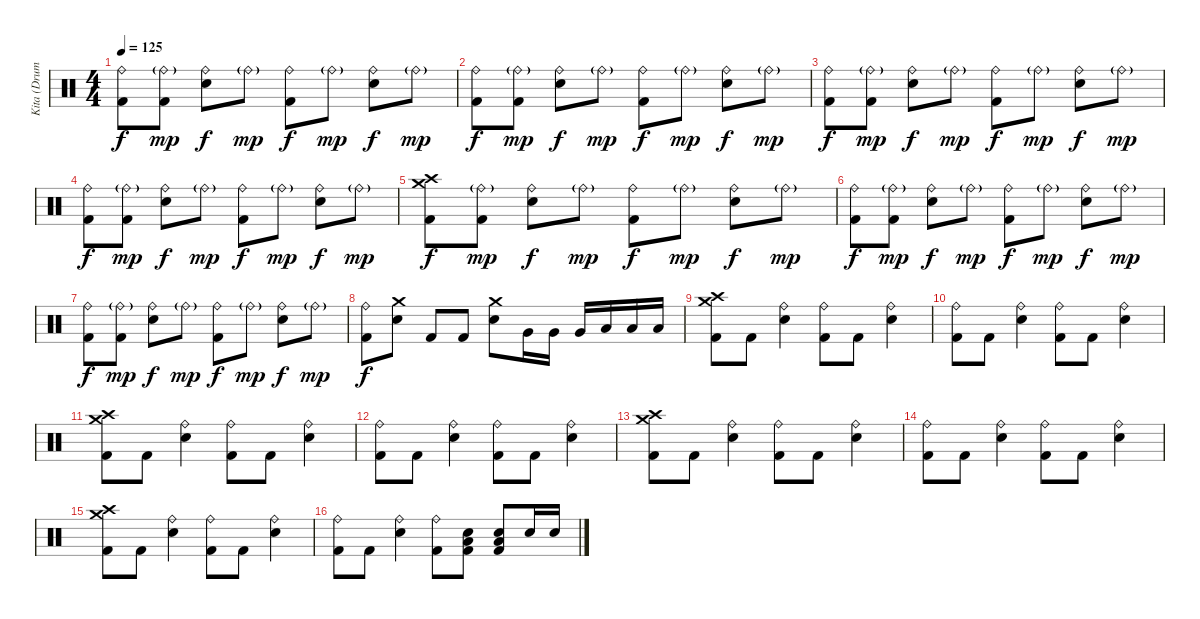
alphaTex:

\track ("Kita (Drums)" "Kita (Drum") {instrument percussion}
\staff {score}
\articulation defaults
\ts (4 4)
\tempo 125
\clef neutral
\ks c
("Ride (bell)" "Kick (hit) 2").8{dy f} ("Ride (bell)"{g} "Kick (hit) 2").8{dy mp} ("Ride (bell)" "Electric Snare (hit)").8{dy f} "Ride (bell)"{g}.8{dy mp} ("Ride (bell)" "Kick (hit) 2").8{dy f} "Ride (bell)"{g}.8{dy mp} ("Ride (bell)" "Electric Snare (hit)").8{dy f} "Ride (bell)"{g}.8{dy mp} |
("Ride (bell)" "Kick (hit) 2").8{dy f} ("Ride (bell)"{g} "Kick (hit) 2").8{dy mp} ("Ride (bell)" "Electric Snare (hit)").8{dy f} "Ride (bell)"{g}.8{dy mp} ("Ride (bell)" "Kick (hit) 2").8{dy f} "Ride (bell)"{g}.8{dy mp} ("Ride (bell)" "Electric Snare (hit)").8{dy f} "Ride (bell)"{g}.8{dy mp} |
("Ride (bell)" "Kick (hit) 2").8{dy f} ("Ride (bell)"{g} "Kick (hit) 2").8{dy mp} ("Ride (bell)" "Electric Snare (hit)").8{dy f} "Ride (bell)"{g}.8{dy mp} ("Ride (bell)" "Kick (hit) 2").8{dy f} "Ride (bell)"{g}.8{dy mp} ("Ride (bell)" "Electric Snare (hit)").8{dy f} "Ride (bell)"{g}.8{dy mp} |
("Ride (bell)" "Kick (hit) 2").8{dy f} ("Ride (bell)"{g} "Kick (hit) 2").8{dy mp} ("Ride (bell)" "Electric Snare (hit)").8{dy f} "Ride (bell)"{g}.8{dy mp} ("Ride (bell)" "Kick (hit) 2").8{dy f} "Ride (bell)"{g}.8{dy mp} ("Ride (bell)" "Electric Snare (hit)").8{dy f} "Ride (bell)"{g}.8{dy mp} |
("Crash medium (hit)" "Crash high (hit)" "Kick (hit) 2").8{dy f} ("Ride (bell)"{g} "Kick (hit) 2").8{dy mp} ("Ride (bell)" "Electric Snare (hit)").8{dy f} "Ride (bell)"{g}.8{dy mp} ("Ride (bell)" "Kick (hit) 2").8{dy f} "Ride (bell)"{g}.8{dy mp} ("Ride (bell)" "Electric Snare (hit)").8{dy f} "Ride (bell)"{g}.8{dy mp} |
("Ride (bell)" "Kick (hit) 2").8{dy f} ("Ride (bell)"{g} "Kick (hit) 2").8{dy mp} ("Ride (bell)" "Electric Snare (hit)").8{dy f} "Ride (bell)"{g}.8{dy mp} ("Ride (bell)" "Kick (hit) 2").8{dy f} "Ride (bell)"{g}.8{dy mp} ("Ride (bell)" "Electric Snare (hit)").8{dy f} "Ride (bell)"{g}.8{dy mp} |
("Ride (bell)" "Kick (hit) 2").8{dy f} ("Ride (bell)"{g} "Kick (hit) 2").8{dy mp} ("Ride (bell)" "Electric Snare (hit)").8{dy f} "Ride (bell)"{g}.8{dy mp} ("Ride (bell)" "Kick (hit) 2").8{dy f} "Ride (bell)"{g}.8{dy mp} ("Ride (bell)" "Electric Snare (hit)").8{dy f} "Ride (bell)"{g}.8{dy mp} |
("Ride (bell)" "Kick (hit) 2").8{dy f} ("Crash medium (hit)" "Electric Snare (hit)").8 "Kick (hit) 2".8 "Kick (hit) 2".8 ("Crash medium (hit)" "Electric Snare (hit)").8 "Very Low Tom (hit)".16 "Very Low Tom (hit)".16 "Very Low Tom (hit)".16 "Low Floor Tom (hit)".16 "Low Floor Tom (hit)".16 "Low Floor Tom (hit)".16 |
("Crash medium (hit)" "Crash high (hit)" "Kick (hit) 2").8 "Kick (hit) 2".8 ("Ride (bell)" "Electric Snare (hit)").4 ("Ride (bell)" "Kick (hit) 2").8 "Kick (hit) 2".8 ("Ride (bell)" "Electric Snare (hit)").4 |
("Ride (bell)" "Kick (hit) 2").8 "Kick (hit) 2".8 ("Ride (bell)" "Electric Snare (hit)").4 ("Ride (bell)" "Kick (hit) 2").8 "Kick (hit) 2".8 ("Ride (bell)" "Electric Snare (hit)").4 |
("Crash medium (hit)" "Crash high (hit)" "Kick (hit) 2").8 "Kick (hit) 2".8 ("Ride (bell)" "Electric Snare (hit)").4 ("Ride (bell)" "Kick (hit) 2").8 "Kick (hit) 2".8 ("Ride (bell)" "Electric Snare (hit)").4 |
("Ride (bell)" "Kick (hit) 2").8 "Kick (hit) 2".8 ("Ride (bell)" "Electric Snare (hit)").4 ("Ride (bell)" "Kick (hit) 2").8 "Kick (hit) 2".8 ("Ride (bell)" "Electric Snare (hit)").4 |
("Crash medium (hit)" "Crash high (hit)" "Kick (hit) 2").8 "Kick (hit) 2".8 ("Ride (bell)" "Electric Snare (hit)").4 ("Ride (bell)" "Kick (hit) 2").8 "Kick (hit) 2".8 ("Ride (bell)" "Electric Snare (hit)").4 |
("Ride (bell)" "Kick (hit) 2").8 "Kick (hit) 2".8 ("Ride (bell)" "Electric Snare (hit)").4 ("Ride (bell)" "Kick (hit) 2").8 "Kick (hit) 2".8 ("Ride (bell)" "Electric Snare (hit)").4 |
("Crash medium (hit)" "Crash high (hit)" "Kick (hit) 2").8 "Kick (hit) 2".8 ("Ride (bell)" "Electric Snare (hit)").4 ("Ride (bell)" "Kick (hit) 2").8 "Kick (hit) 2".8 ("Ride (bell)" "Electric Snare (hit)").4 |
("Ride (bell)" "Kick (hit) 2").8 "Kick (hit) 2".8 ("Ride (bell)" "Electric Snare (hit)").4 ("Ride (bell)" "Kick (hit) 2").8 ("Low Floor Tom (hit)" "Electric Snare (hit)" "Kick (hit) 2").8 ("Low Floor Tom (hit)" "Electric Snare (hit)" "Kick (hit) 2").8 "Electric Snare (hit)".16 "Electric Snare (hit)".16
